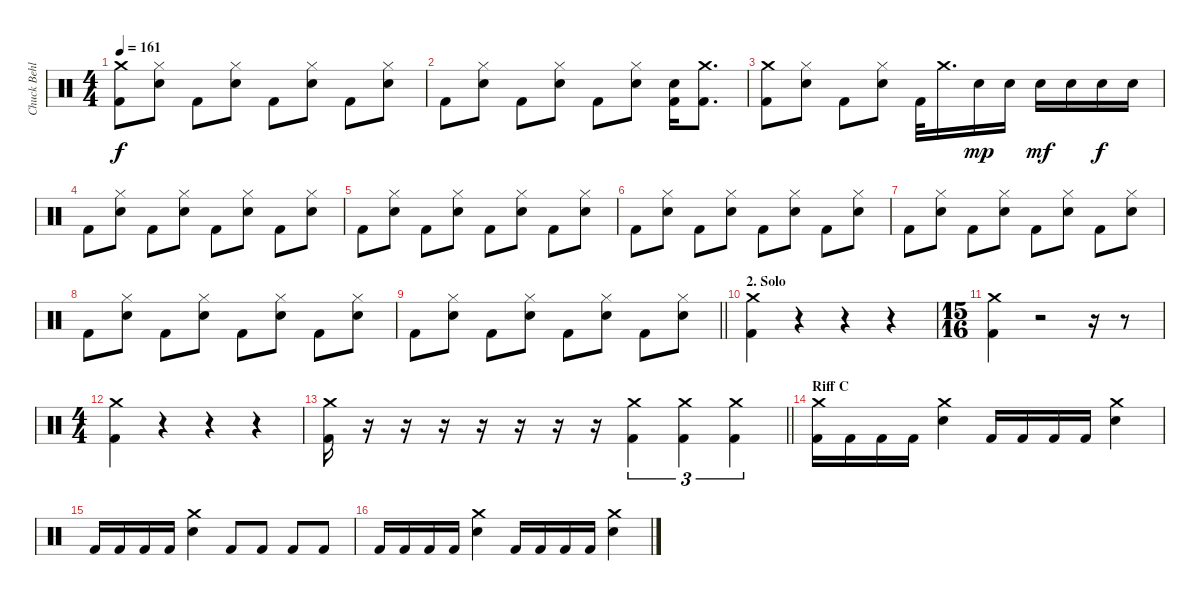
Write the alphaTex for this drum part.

\track ("Chuck Behler" "Chuck Behl") {instrument percussion}
\staff {score}
\articulation defaults
\ts (4 4)
\tempo 161
\clef neutral
\ks c
("Crash medium (hit)" "Kick (hit) 2").8{dy f} ("Hi-Hat (closed)" "Snare (hit) 2").8 "Kick (hit) 2".8 ("Hi-Hat (closed)" "Snare (hit) 2").8 "Kick (hit) 2".8 ("Hi-Hat (closed)" "Snare (hit) 2").8 "Kick (hit) 2".8 ("Hi-Hat (closed)" "Snare (hit) 2").8 |
"Kick (hit) 2".8 ("Hi-Hat (closed)" "Snare (hit) 2").8 "Kick (hit) 2".8 ("Hi-Hat (closed)" "Snare (hit) 2").8 "Kick (hit) 2".8 ("Hi-Hat (closed)" "Snare (hit) 2").8 ("Snare (hit) 2" "Kick (hit) 2").16 ("Crash medium (hit)" "Kick (hit) 2").8{d} |
("Crash medium (hit)" "Kick (hit) 2").8 ("Hi-Hat (closed)" "Snare (hit) 2").8 "Kick (hit) 2".8 ("Hi-Hat (closed)" "Snare (hit) 2").8 "Kick (hit) 2".32 "Crash medium (hit)".16{d} "Snare (hit) 2".16{dy mp} "Snare (hit) 2".16 "Snare (hit) 2".16{dy mf} "Snare (hit) 2".16 "Snare (hit) 2".16{dy f} "Snare (hit) 2".16 |
"Kick (hit) 2".8 ("Hi-Hat (closed)" "Snare (hit) 2").8 "Kick (hit) 2".8 ("Hi-Hat (closed)" "Snare (hit) 2").8 "Kick (hit) 2".8 ("Hi-Hat (closed)" "Snare (hit) 2").8 "Kick (hit) 2".8 ("Hi-Hat (closed)" "Snare (hit) 2").8 |
"Kick (hit) 2".8 ("Hi-Hat (closed)" "Snare (hit) 2").8 "Kick (hit) 2".8 ("Hi-Hat (closed)" "Snare (hit) 2").8 "Kick (hit) 2".8 ("Hi-Hat (closed)" "Snare (hit) 2").8 "Kick (hit) 2".8 ("Hi-Hat (closed)" "Snare (hit) 2").8 |
"Kick (hit) 2".8 ("Hi-Hat (closed)" "Snare (hit) 2").8 "Kick (hit) 2".8 ("Hi-Hat (closed)" "Snare (hit) 2").8 "Kick (hit) 2".8 ("Hi-Hat (closed)" "Snare (hit) 2").8 "Kick (hit) 2".8 ("Hi-Hat (closed)" "Snare (hit) 2").8 |
"Kick (hit) 2".8 ("Hi-Hat (closed)" "Snare (hit) 2").8 "Kick (hit) 2".8 ("Hi-Hat (closed)" "Snare (hit) 2").8 "Kick (hit) 2".8 ("Hi-Hat (closed)" "Snare (hit) 2").8 "Kick (hit) 2".8 ("Hi-Hat (closed)" "Snare (hit) 2").8 |
"Kick (hit) 2".8 ("Hi-Hat (closed)" "Snare (hit) 2").8 "Kick (hit) 2".8 ("Hi-Hat (closed)" "Snare (hit) 2").8 "Kick (hit) 2".8 ("Hi-Hat (closed)" "Snare (hit) 2").8 "Kick (hit) 2".8 ("Hi-Hat (closed)" "Snare (hit) 2").8 |
\barLineRight lightlight "Kick (hit) 2".8
("Hi-Hat (closed)" "Snare (hit) 2").8 "Kick (hit) 2".8 ("Hi-Hat (closed)" "Snare (hit) 2").8 "Kick (hit) 2".8 ("Hi-Hat (closed)" "Snare (hit) 2").8 "Kick (hit) 2".8 ("Hi-Hat (closed)" "Snare (hit) 2").8 |
\section ("" "2. Solo")
("Crash medium (hit)" "Kick (hit) 2").4{volume 0} r.4 r.4 r.4{volume 16} |
\ts (15 16)
("Crash medium (hit)" "Kick (hit) 2").4{volume 0} r.2 r.16 r.8{volume 16} |
\ts (4 4)
("Crash medium (hit)" "Kick (hit) 2").4{volume 0} r.4 r.4 r.4{volume 16} |
\barLineRight lightlight
("Crash medium (hit)" "Kick (hit) 2").16{volume 0} r.16 r.16 r.16 r.16 r.16 r.16 r.16 ("Crash medium (hit)" "Kick (hit) 2").4{tu (3 2) volume 16} ("Crash medium (hit)" "Kick (hit) 2").4{tu (3 2)} ("Crash medium (hit)" "Kick (hit) 2").4{tu (3 2)} |
\section ("" "Riff C")
("Crash medium (hit)" "Kick (hit) 2").16 "Kick (hit) 2".16 "Kick (hit) 2".16 "Kick (hit) 2".16 ("Crash medium (hit)" "Snare (hit) 2").4 "Kick (hit) 2".16 "Kick (hit) 2".16 "Kick (hit) 2".16 "Kick (hit) 2".16 ("Crash medium (hit)" "Snare (hit) 2").4 |
"Kick (hit) 2".16 "Kick (hit) 2".16 "Kick (hit) 2".16 "Kick (hit) 2".16 ("Crash medium (hit)" "Snare (hit) 2").4 "Kick (hit) 2".8 "Kick (hit) 2".8 "Kick (hit) 2".8 "Kick (hit) 2".8 |
"Kick (hit) 2".16 "Kick (hit) 2".16 "Kick (hit) 2".16 "Kick (hit) 2".16 ("Crash medium (hit)" "Snare (hit) 2").4 "Kick (hit) 2".16 "Kick (hit) 2".16 "Kick (hit) 2".16 "Kick (hit) 2".16 ("Crash medium (hit)" "Snare (hit) 2").4
